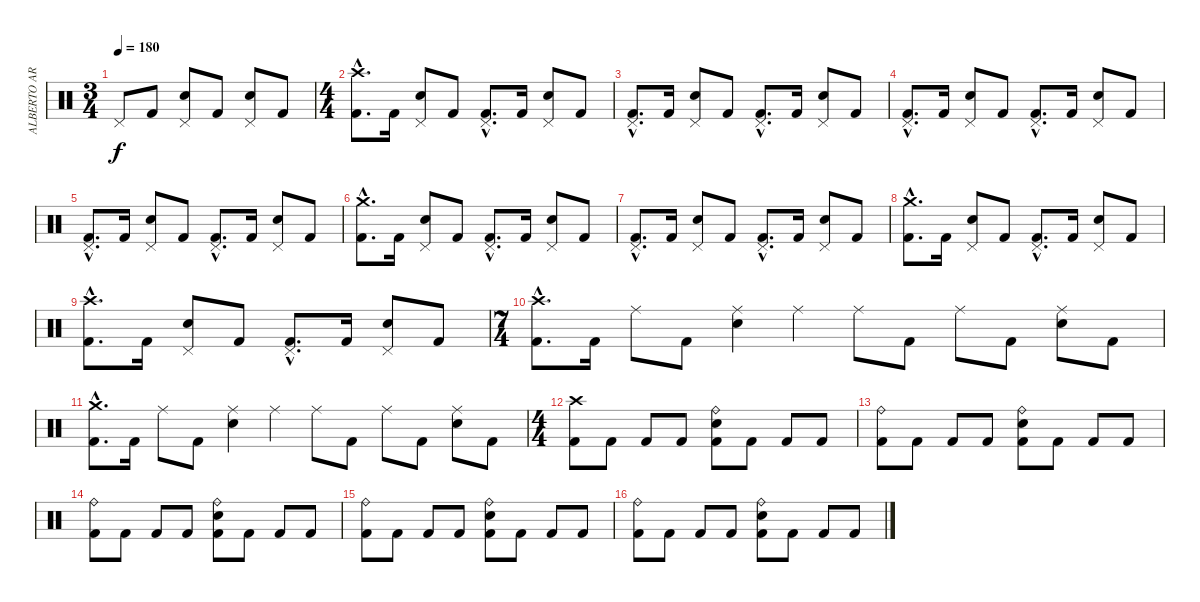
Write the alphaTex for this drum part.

\track ("ALBERTO ARDINES" "ALBERTO AR") {instrument percussion}
\staff {score}
\articulation defaults
\ts (3 4)
\tempo 180
\clef neutral
\ks c "Pedal Hi-Hat (hit)".8{dy f} "Kick (hit) 2".8
("Pedal Hi-Hat (hit)" "Electric Snare (hit)").8 "Kick (hit) 2".8 ("Pedal Hi-Hat (hit)" "Electric Snare (hit)").8 "Kick (hit) 2".8 |
\ts (4 4)
("Crash high (hit)"{hac} "Kick (hit) 2"{hac}).8{d} "Kick (hit) 2".16 ("Pedal Hi-Hat (hit)" "Electric Snare (hit)").8 "Kick (hit) 2".8 ("Pedal Hi-Hat (hit)"{hac} "Kick (hit) 2"{hac}).8{d} "Kick (hit) 2".16 ("Pedal Hi-Hat (hit)" "Electric Snare (hit)").8 "Kick (hit) 2".8 |
("Pedal Hi-Hat (hit)"{hac} "Kick (hit) 2"{hac}).8{d} "Kick (hit) 2".16 ("Pedal Hi-Hat (hit)" "Electric Snare (hit)").8 "Kick (hit) 2".8 ("Pedal Hi-Hat (hit)"{hac} "Kick (hit) 2"{hac}).8{d} "Kick (hit) 2".16 ("Pedal Hi-Hat (hit)" "Electric Snare (hit)").8 "Kick (hit) 2".8 |
("Pedal Hi-Hat (hit)"{hac} "Kick (hit) 2"{hac}).8{d} "Kick (hit) 2".16 ("Pedal Hi-Hat (hit)" "Electric Snare (hit)").8 "Kick (hit) 2".8 ("Pedal Hi-Hat (hit)"{hac} "Kick (hit) 2"{hac}).8{d} "Kick (hit) 2".16 ("Pedal Hi-Hat (hit)" "Electric Snare (hit)").8 "Kick (hit) 2".8 |
("Pedal Hi-Hat (hit)"{hac} "Kick (hit) 2"{hac}).8{d} "Kick (hit) 2".16 ("Pedal Hi-Hat (hit)" "Electric Snare (hit)").8 "Kick (hit) 2".8 ("Pedal Hi-Hat (hit)"{hac} "Kick (hit) 2"{hac}).8{d} "Kick (hit) 2".16 ("Pedal Hi-Hat (hit)" "Electric Snare (hit)").8 "Kick (hit) 2".8 |
("Crash medium (hit)"{hac} "Kick (hit) 2"{hac}).8{d} "Kick (hit) 2".16 ("Pedal Hi-Hat (hit)" "Electric Snare (hit)").8 "Kick (hit) 2".8 ("Pedal Hi-Hat (hit)"{hac} "Kick (hit) 2"{hac}).8{d} "Kick (hit) 2".16 ("Pedal Hi-Hat (hit)" "Electric Snare (hit)").8 "Kick (hit) 2".8 |
("Pedal Hi-Hat (hit)"{hac} "Kick (hit) 2"{hac}).8{d} "Kick (hit) 2".16 ("Pedal Hi-Hat (hit)" "Electric Snare (hit)").8 "Kick (hit) 2".8 ("Pedal Hi-Hat (hit)"{hac} "Kick (hit) 2"{hac}).8{d} "Kick (hit) 2".16 ("Pedal Hi-Hat (hit)" "Electric Snare (hit)").8 "Kick (hit) 2".8 |
("Crash medium (hit)"{hac} "Kick (hit) 2"{hac}).8{d} "Kick (hit) 2".16 ("Pedal Hi-Hat (hit)" "Electric Snare (hit)").8 "Kick (hit) 2".8 ("Pedal Hi-Hat (hit)"{hac} "Kick (hit) 2"{hac}).8{d} "Kick (hit) 2".16 ("Pedal Hi-Hat (hit)" "Electric Snare (hit)").8 "Kick (hit) 2".8 |
("Crash high (hit)"{hac} "Kick (hit) 2"{hac}).8{d} "Kick (hit) 2".16 ("Pedal Hi-Hat (hit)" "Electric Snare (hit)").8 "Kick (hit) 2".8 ("Pedal Hi-Hat (hit)"{hac} "Kick (hit) 2"{hac}).8{d} "Kick (hit) 2".16 ("Pedal Hi-Hat (hit)" "Electric Snare (hit)").8 "Kick (hit) 2".8 |
\ts (7 4)
("Crash high (hit)"{hac} "Kick (hit) 2"{hac}).8{d} "Kick (hit) 2".16 "Ride (middle)".8 "Kick (hit) 2".8 ("Ride (middle)" "Electric Snare (hit)").4 "Ride (middle)".4 "Ride (middle)".8 "Kick (hit) 2".8 "Ride (middle)".8 "Kick (hit) 2".8 ("Ride (middle)" "Electric Snare (hit)").8 "Kick (hit) 2".8 |
("Crash medium (hit)"{hac} "Kick (hit) 2"{hac}).8{d} "Kick (hit) 2".16 "Ride (middle)".8 "Kick (hit) 2".8 ("Ride (middle)" "Electric Snare (hit)").4 "Ride (middle)".4 "Ride (middle)".8 "Kick (hit) 2".8 "Ride (middle)".8 "Kick (hit) 2".8 ("Ride (middle)" "Electric Snare (hit)").8 "Kick (hit) 2".8 |
\ts (4 4)
("Crash high (hit)" "Kick (hit) 2").8 "Kick (hit) 2".8 "Kick (hit) 2".8 "Kick (hit) 2".8 ("Ride (bell)" "Electric Snare (hit)" "Kick (hit) 2").8 "Kick (hit) 2".8 "Kick (hit) 2".8 "Kick (hit) 2".8 |
("Ride (bell)" "Kick (hit) 2").8 "Kick (hit) 2".8 "Kick (hit) 2".8 "Kick (hit) 2".8 ("Ride (bell)" "Electric Snare (hit)" "Kick (hit) 2").8 "Kick (hit) 2".8 "Kick (hit) 2".8 "Kick (hit) 2".8 |
("Ride (bell)" "Kick (hit) 2").8 "Kick (hit) 2".8 "Kick (hit) 2".8 "Kick (hit) 2".8 ("Ride (bell)" "Electric Snare (hit)" "Kick (hit) 2").8 "Kick (hit) 2".8 "Kick (hit) 2".8 "Kick (hit) 2".8 |
("Ride (bell)" "Kick (hit) 2").8 "Kick (hit) 2".8 "Kick (hit) 2".8 "Kick (hit) 2".8 ("Ride (bell)" "Electric Snare (hit)" "Kick (hit) 2").8 "Kick (hit) 2".8 "Kick (hit) 2".8 "Kick (hit) 2".8 |
("Ride (bell)" "Kick (hit) 2").8 "Kick (hit) 2".8 "Kick (hit) 2".8 "Kick (hit) 2".8 ("Ride (bell)" "Electric Snare (hit)" "Kick (hit) 2").8 "Kick (hit) 2".8 "Kick (hit) 2".8 "Kick (hit) 2".8
